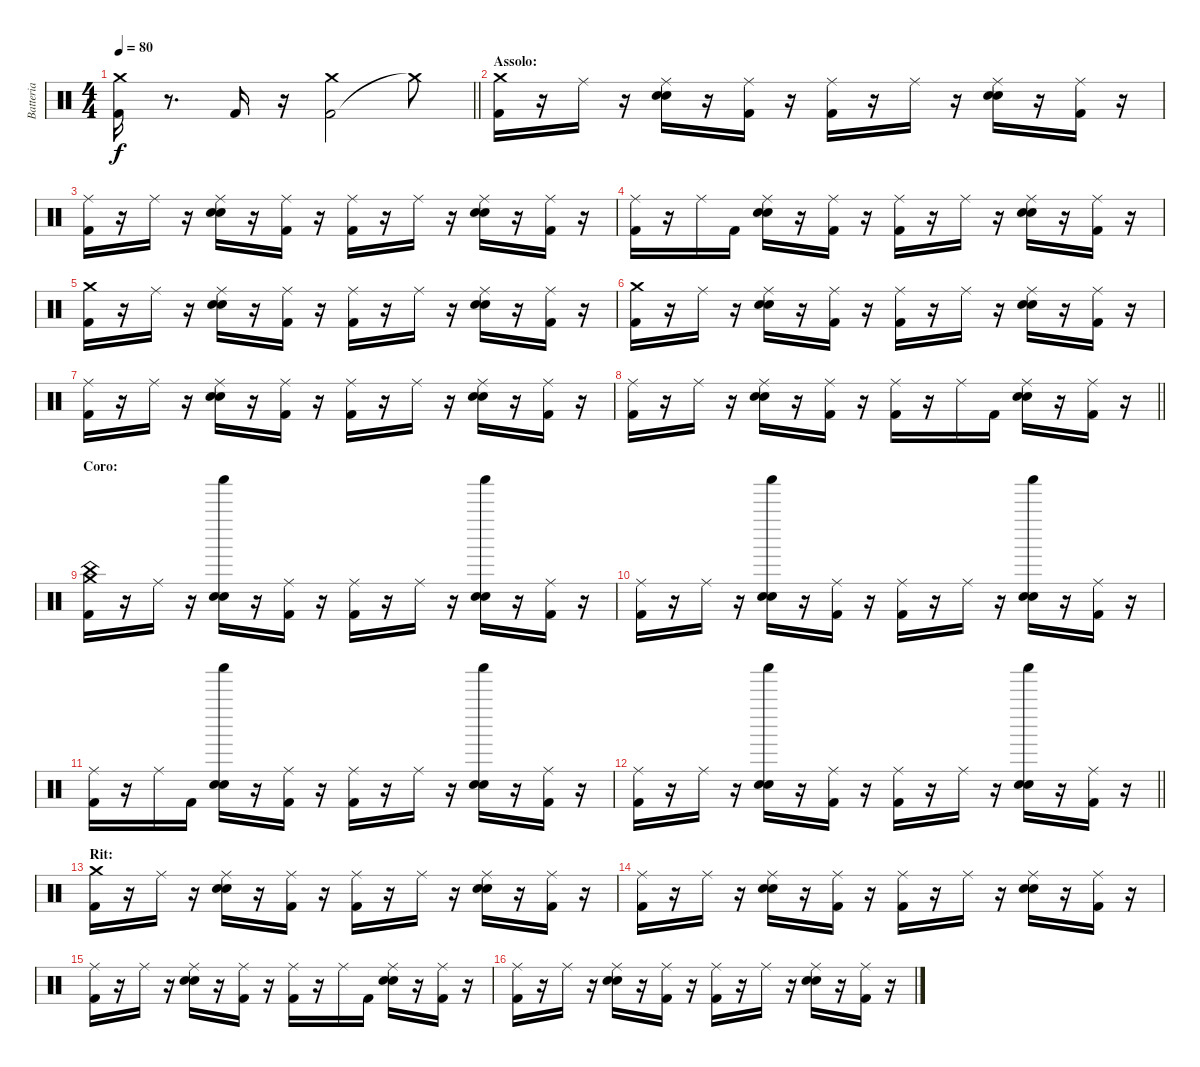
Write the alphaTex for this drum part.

\track ("Batteria" "Batteria") {instrument percussion}
\staff {score}
\articulation defaults
\ts (4 4)
\tempo 80
\clef neutral
\barLineRight lightlight
\ks c
("Kick (hit) 2" "Crash medium (hit)").16{dy f} r.8{d} "Kick (hit) 2".16 r.16 ("Kick (hit) 2" "Crash medium (hit)").2 "Crash medium (hit)"{t}.8 |
\section ("" "Assolo:")
("Kick (hit) 2" "Crash medium (hit)").16 r.16 "Ride (middle)".16 r.16 ("Snare (hit) 2" "Snare (hit) 2" "Ride (middle)").16 r.16 ("Kick (hit) 2" "Ride (middle)").16 r.16 ("Kick (hit) 2" "Ride (middle)").16 r.16 "Ride (middle)".16 r.16 ("Snare (hit) 2" "Snare (hit) 2" "Ride (middle)").16 r.16 ("Kick (hit) 2" "Ride (middle)").16 r.16 |
("Kick (hit) 2" "Ride (middle)").16 r.16 "Ride (middle)".16 r.16 ("Snare (hit) 2" "Snare (hit) 2" "Ride (middle)").16 r.16 ("Kick (hit) 2" "Ride (middle)").16 r.16 ("Kick (hit) 2" "Ride (middle)").16 r.16 "Ride (middle)".16 r.16 ("Snare (hit) 2" "Snare (hit) 2" "Ride (middle)").16 r.16 ("Kick (hit) 2" "Ride (middle)").16 r.16 |
("Kick (hit) 2" "Ride (middle)").16 r.16 "Ride (middle)".16 "Kick (hit) 2".16 ("Snare (hit) 2" "Snare (hit) 2" "Ride (middle)").16 r.16 ("Kick (hit) 2" "Ride (middle)").16 r.16 ("Kick (hit) 2" "Ride (middle)").16 r.16 "Ride (middle)".16 r.16 ("Snare (hit) 2" "Snare (hit) 2" "Ride (middle)").16 r.16 ("Kick (hit) 2" "Ride (middle)").16 r.16 |
("Kick (hit) 2" "Crash medium (hit)").16 r.16 "Ride (middle)".16 r.16 ("Snare (hit) 2" "Snare (hit) 2" "Ride (middle)").16 r.16 ("Kick (hit) 2" "Ride (middle)").16 r.16 ("Kick (hit) 2" "Ride (middle)").16 r.16 "Ride (middle)".16 r.16 ("Snare (hit) 2" "Snare (hit) 2" "Ride (middle)").16 r.16 ("Kick (hit) 2" "Ride (middle)").16 r.16 |
("Kick (hit) 2" "Crash medium (hit)").16 r.16 "Ride (middle)".16 r.16 ("Snare (hit) 2" "Snare (hit) 2" "Ride (middle)").16 r.16 ("Kick (hit) 2" "Ride (middle)").16 r.16 ("Kick (hit) 2" "Ride (middle)").16 r.16 "Ride (middle)".16 r.16 ("Snare (hit) 2" "Snare (hit) 2" "Ride (middle)").16 r.16 ("Kick (hit) 2" "Ride (middle)").16 r.16 |
("Kick (hit) 2" "Ride (middle)").16 r.16 "Ride (middle)".16 r.16 ("Snare (hit) 2" "Snare (hit) 2" "Ride (middle)").16 r.16 ("Kick (hit) 2" "Ride (middle)").16 r.16 ("Kick (hit) 2" "Ride (middle)").16 r.16 "Ride (middle)".16 r.16 ("Snare (hit) 2" "Snare (hit) 2" "Ride (middle)").16 r.16 ("Kick (hit) 2" "Ride (middle)").16 r.16 |
\barLineRight lightlight
("Kick (hit) 2" "Ride (middle)").16 r.16 "Ride (middle)".16 r.16 ("Snare (hit) 2" "Snare (hit) 2" "Ride (middle)").16 r.16 ("Kick (hit) 2" "Ride (middle)").16 r.16 ("Kick (hit) 2" "Ride (middle)").16 r.16 "Ride (middle)".16 "Kick (hit) 2".16 ("Snare (hit) 2" "Snare (hit) 2" "Ride (middle)").16 r.16 ("Kick (hit) 2" "Ride (middle)").16 r.16 |
\section ("" "Coro:")
("Kick (hit) 2" "China (hit)" "Crash medium (hit)").16 r.16 "Ride (middle)".16 r.16 ("Snare (hit) 2" "Hand Clap (hit)" "Shaker (hit)").16 r.16 ("Kick (hit) 2" "Ride (middle)").16 r.16 ("Kick (hit) 2" "Ride (middle)").16 r.16 "Ride (middle)".16 r.16 ("Snare (hit) 2" "Hand Clap (hit)" "Shaker (hit)").16 r.16 ("Kick (hit) 2" "Ride (middle)").16 r.16 |
("Kick (hit) 2" "Ride (middle)").16 r.16 "Ride (middle)".16 r.16 ("Snare (hit) 2" "Hand Clap (hit)" "Shaker (hit)").16 r.16 ("Kick (hit) 2" "Ride (middle)").16 r.16 ("Kick (hit) 2" "Ride (middle)").16 r.16 "Ride (middle)".16 r.16 ("Snare (hit) 2" "Hand Clap (hit)" "Shaker (hit)").16 r.16 ("Kick (hit) 2" "Ride (middle)").16 r.16 |
("Kick (hit) 2" "Ride (middle)").16 r.16 "Ride (middle)".16 "Kick (hit) 2".16 ("Snare (hit) 2" "Hand Clap (hit)" "Shaker (hit)").16 r.16 ("Kick (hit) 2" "Ride (middle)").16 r.16 ("Kick (hit) 2" "Ride (middle)").16 r.16 "Ride (middle)".16 r.16 ("Snare (hit) 2" "Hand Clap (hit)" "Shaker (hit)").16 r.16 ("Kick (hit) 2" "Ride (middle)").16 r.16 |
\barLineRight lightlight
("Kick (hit) 2" "Ride (middle)").16 r.16 "Ride (middle)".16 r.16 ("Snare (hit) 2" "Hand Clap (hit)" "Shaker (hit)").16 r.16 ("Kick (hit) 2" "Ride (middle)").16 r.16 ("Kick (hit) 2" "Ride (middle)").16 r.16 "Ride (middle)".16 r.16 ("Snare (hit) 2" "Hand Clap (hit)" "Shaker (hit)").16 r.16 ("Kick (hit) 2" "Ride (middle)").16 r.16 |
\section ("" "Rit:")
("Kick (hit) 2" "Crash medium (hit)").16 r.16 "Ride (middle)".16 r.16 ("Snare (hit) 2" "Snare (hit) 2" "Ride (middle)").16 r.16 ("Kick (hit) 2" "Ride (middle)").16 r.16 ("Kick (hit) 2" "Ride (middle)").16 r.16 "Ride (middle)".16 r.16 ("Snare (hit) 2" "Snare (hit) 2" "Ride (middle)").16 r.16 ("Kick (hit) 2" "Ride (middle)").16 r.16 |
("Kick (hit) 2" "Ride (middle)").16 r.16 "Ride (middle)".16 r.16 ("Snare (hit) 2" "Snare (hit) 2" "Ride (middle)").16 r.16 ("Kick (hit) 2" "Ride (middle)").16 r.16 ("Kick (hit) 2" "Ride (middle)").16 r.16 "Ride (middle)".16 r.16 ("Snare (hit) 2" "Snare (hit) 2" "Ride (middle)").16 r.16 ("Kick (hit) 2" "Ride (middle)").16 r.16 |
("Kick (hit) 2" "Ride (middle)").16 r.16 "Ride (middle)".16 r.16 ("Snare (hit) 2" "Snare (hit) 2" "Ride (middle)").16 r.16 ("Kick (hit) 2" "Ride (middle)").16 r.16 ("Kick (hit) 2" "Ride (middle)").16 r.16 "Ride (middle)".16 "Kick (hit) 2".16 ("Snare (hit) 2" "Snare (hit) 2" "Ride (middle)").16 r.16 ("Kick (hit) 2" "Ride (middle)").16 r.16 |
("Kick (hit) 2" "Ride (middle)").16 r.16 "Ride (middle)".16 r.16 ("Snare (hit) 2" "Snare (hit) 2" "Ride (middle)").16 r.16 ("Kick (hit) 2" "Ride (middle)").16 r.16 ("Kick (hit) 2" "Ride (middle)").16 r.16 "Ride (middle)".16 r.16 ("Snare (hit) 2" "Snare (hit) 2" "Ride (middle)").16 r.16 ("Kick (hit) 2" "Ride (middle)").16 r.16
